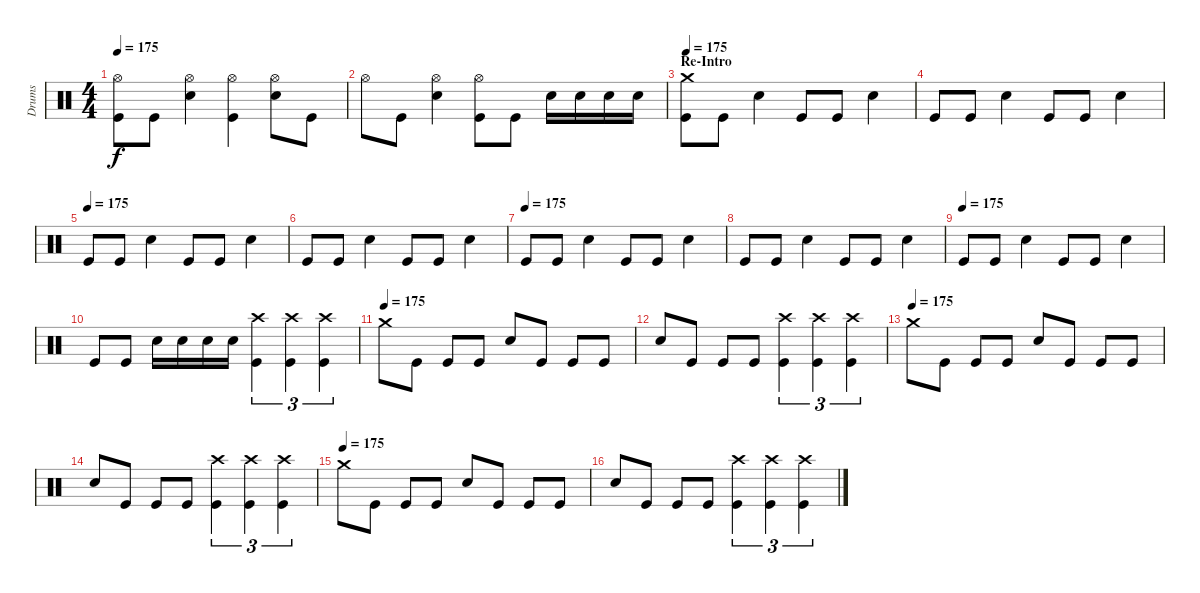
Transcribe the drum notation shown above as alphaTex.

\track ("Drums" "Drums") {instrument percussion}
\staff {score}
\articulation defaults
\ts (4 4)
\tempo 175
\clef neutral
\ks c
("Hi-Hat (open)" "Kick (hit)").8{dy f} "Kick (hit)".8 ("Hi-Hat (open)" "Snare (hit) 2").4 ("Hi-Hat (open)" "Kick (hit)").4 ("Hi-Hat (open)" "Snare (hit) 2").8 "Kick (hit)".8 |
"Hi-Hat (open)".8 "Kick (hit)".8 ("Hi-Hat (open)" "Snare (hit) 2").4 ("Hi-Hat (open)" "Kick (hit)").8 "Kick (hit)".8 "Snare (hit) 2".16 "Snare (hit) 2".16 "Snare (hit) 2".16 "Snare (hit) 2".16 |
\section ("" "Re-Intro")
\tempo 175
("Crash medium (hit)" "Kick (hit)").8 "Kick (hit)".8 "Snare (hit) 2".4 "Kick (hit)".8 "Kick (hit)".8 "Snare (hit) 2".4 |
"Kick (hit)".8 "Kick (hit)".8 "Snare (hit) 2".4 "Kick (hit)".8 "Kick (hit)".8 "Snare (hit) 2".4 |
\tempo (175)
"Kick (hit)".8 "Kick (hit)".8 "Snare (hit) 2".4 "Kick (hit)".8 "Kick (hit)".8 "Snare (hit) 2".4 |
"Kick (hit)".8 "Kick (hit)".8 "Snare (hit) 2".4 "Kick (hit)".8 "Kick (hit)".8 "Snare (hit) 2".4 |
\tempo (175)
"Kick (hit)".8 "Kick (hit)".8 "Snare (hit) 2".4 "Kick (hit)".8 "Kick (hit)".8 "Snare (hit) 2".4 |
"Kick (hit)".8 "Kick (hit)".8 "Snare (hit) 2".4 "Kick (hit)".8 "Kick (hit)".8 "Snare (hit) 2".4 |
\tempo (175)
"Kick (hit)".8 "Kick (hit)".8 "Snare (hit) 2".4 "Kick (hit)".8 "Kick (hit)".8 "Snare (hit) 2".4 |
"Kick (hit)".8 "Kick (hit)".8 "Snare (hit) 2".16 "Snare (hit) 2".16 "Snare (hit) 2".16 "Snare (hit) 2".16 ("Crash high (hit)" "Kick (hit)").4{tu (3 2)} ("Crash high (hit)" "Kick (hit)").4{tu (3 2)} ("Crash high (hit)" "Kick (hit)").4{tu (3 2)} |
\tempo (175)
"Crash medium (hit)".8 "Kick (hit)".8 "Kick (hit)".8 "Kick (hit)".8 "Snare (hit) 2".8 "Kick (hit)".8 "Kick (hit)".8 "Kick (hit)".8 |
"Snare (hit) 2".8 "Kick (hit)".8 "Kick (hit)".8 "Kick (hit)".8 ("Crash high (hit)" "Kick (hit)").4{tu (3 2)} ("Crash high (hit)" "Kick (hit)").4{tu (3 2)} ("Crash high (hit)" "Kick (hit)").4{tu (3 2)} |
\tempo (175)
"Crash medium (hit)".8 "Kick (hit)".8 "Kick (hit)".8 "Kick (hit)".8 "Snare (hit) 2".8 "Kick (hit)".8 "Kick (hit)".8 "Kick (hit)".8 |
"Snare (hit) 2".8 "Kick (hit)".8 "Kick (hit)".8 "Kick (hit)".8 ("Crash high (hit)" "Kick (hit)").4{tu (3 2)} ("Crash high (hit)" "Kick (hit)").4{tu (3 2)} ("Crash high (hit)" "Kick (hit)").4{tu (3 2)} |
\tempo (175)
"Crash medium (hit)".8 "Kick (hit)".8 "Kick (hit)".8 "Kick (hit)".8 "Snare (hit) 2".8 "Kick (hit)".8 "Kick (hit)".8 "Kick (hit)".8 |
"Snare (hit) 2".8 "Kick (hit)".8 "Kick (hit)".8 "Kick (hit)".8 ("Crash high (hit)" "Kick (hit)").4{tu (3 2)} ("Crash high (hit)" "Kick (hit)").4{tu (3 2)} ("Crash high (hit)" "Kick (hit)").4{tu (3 2)}
